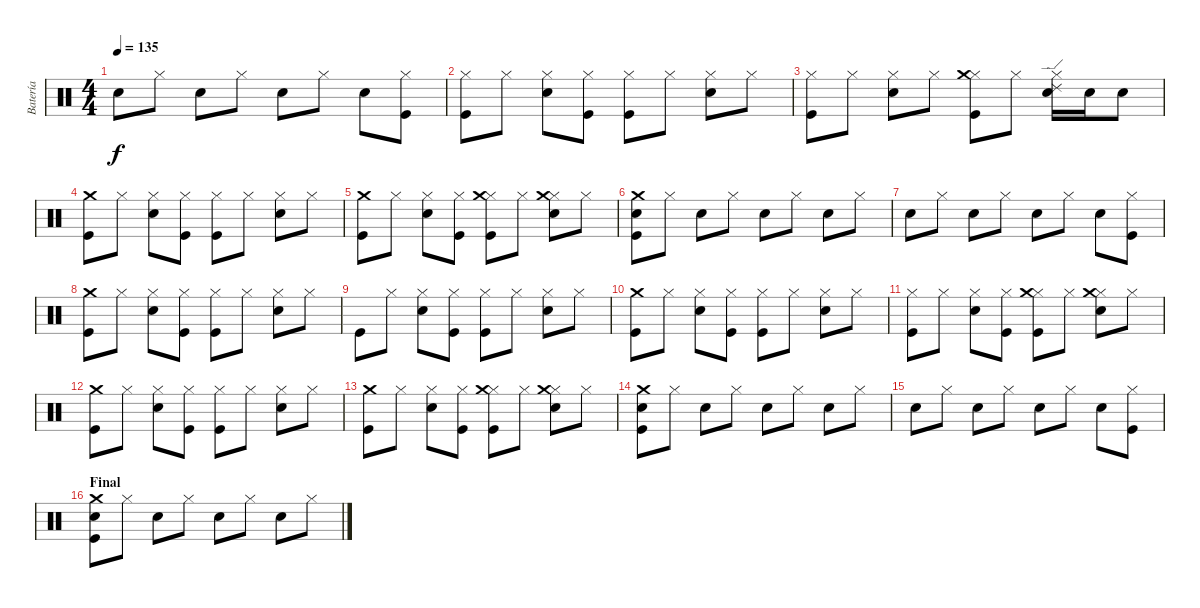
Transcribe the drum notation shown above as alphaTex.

\track ("Batería" "Batería") {instrument percussion}
\staff {score}
\articulation defaults
\ts (4 4)
\tempo 135
\clef neutral
\ks c "Snare (hit) 2".8{dy f} "Hi-Hat (closed)".8 "Snare (hit) 2".8 "Hi-Hat (closed)".8 "Snare (hit) 2".8 "Hi-Hat (closed)".8 "Snare (hit) 2".8
("Kick (hit)" "Hi-Hat (closed)").8 |
("Hi-Hat (closed)" "Kick (hit)").8 "Hi-Hat (closed)".8 ("Hi-Hat (closed)" "Snare (hit) 2").8 ("Hi-Hat (closed)" "Kick (hit)").8 ("Hi-Hat (closed)" "Kick (hit)").8 "Hi-Hat (closed)".8 ("Hi-Hat (closed)" "Snare (hit) 2").8 "Hi-Hat (closed)".8 |
("Hi-Hat (closed)" "Kick (hit)").8 "Hi-Hat (closed)".8 ("Hi-Hat (closed)" "Snare (hit) 2").8 "Hi-Hat (closed)".8 ("Hi-Hat (closed)" "Kick (hit)" "Crash medium (hit)").8 "Hi-Hat (closed)".8 ("Hi-Hat (closed)" "Snare (hit) 2" "Ride (edge) 2").16 "Snare (hit) 2".16 "Snare (hit) 2".8 |
("Kick (hit)" "Crash medium (hit)").8 "Hi-Hat (closed)".8 ("Hi-Hat (closed)" "Snare (hit) 2").8 ("Hi-Hat (closed)" "Kick (hit)").8 ("Hi-Hat (closed)" "Kick (hit)").8 "Hi-Hat (closed)".8 ("Hi-Hat (closed)" "Snare (hit) 2").8 "Hi-Hat (closed)".8 |
("Kick (hit)" "Crash medium (hit)").8 "Hi-Hat (closed)".8 ("Hi-Hat (closed)" "Snare (hit) 2").8 ("Hi-Hat (closed)" "Kick (hit)").8 ("Hi-Hat (closed)" "Kick (hit)" "Crash medium (hit)").8 "Hi-Hat (closed)".8 ("Hi-Hat (closed)" "Snare (hit) 2" "Crash medium (hit)").8 "Hi-Hat (closed)".8 |
("Kick (hit)" "Snare (hit) 2" "Crash medium (hit)").8 "Hi-Hat (closed)".8 "Snare (hit) 2".8 "Hi-Hat (closed)".8 "Snare (hit) 2".8 "Hi-Hat (closed)".8 "Snare (hit) 2".8 "Hi-Hat (closed)".8 |
"Snare (hit) 2".8 "Hi-Hat (closed)".8 "Snare (hit) 2".8 "Hi-Hat (closed)".8 "Snare (hit) 2".8 "Hi-Hat (closed)".8 "Snare (hit) 2".8 ("Kick (hit)" "Hi-Hat (closed)").8 |
("Kick (hit)" "Crash medium (hit)").8 "Hi-Hat (closed)".8 ("Hi-Hat (closed)" "Snare (hit) 2").8 ("Hi-Hat (closed)" "Kick (hit)").8 ("Hi-Hat (closed)" "Kick (hit)").8 "Hi-Hat (closed)".8 ("Hi-Hat (closed)" "Snare (hit) 2").8 "Hi-Hat (closed)".8 |
"Kick (hit)".8 "Hi-Hat (closed)".8 ("Hi-Hat (closed)" "Snare (hit) 2").8 ("Hi-Hat (closed)" "Kick (hit)").8 ("Hi-Hat (closed)" "Kick (hit)").8 "Hi-Hat (closed)".8 ("Hi-Hat (closed)" "Snare (hit) 2").8 "Hi-Hat (closed)".8 |
("Kick (hit)" "Crash medium (hit)").8 "Hi-Hat (closed)".8 ("Hi-Hat (closed)" "Snare (hit) 2").8 ("Hi-Hat (closed)" "Kick (hit)").8 ("Hi-Hat (closed)" "Kick (hit)").8 "Hi-Hat (closed)".8 ("Hi-Hat (closed)" "Snare (hit) 2").8 "Hi-Hat (closed)".8 |
("Kick (hit)" "Hi-Hat (closed)").8 "Hi-Hat (closed)".8 ("Hi-Hat (closed)" "Snare (hit) 2").8 ("Hi-Hat (closed)" "Kick (hit)").8 ("Hi-Hat (closed)" "Kick (hit)" "Crash medium (hit)").8 "Hi-Hat (closed)".8 ("Hi-Hat (closed)" "Snare (hit) 2" "Crash medium (hit)").8 "Hi-Hat (closed)".8 |
("Kick (hit)" "Crash medium (hit)").8 "Hi-Hat (closed)".8 ("Hi-Hat (closed)" "Snare (hit) 2").8 ("Hi-Hat (closed)" "Kick (hit)").8 ("Hi-Hat (closed)" "Kick (hit)").8 "Hi-Hat (closed)".8 ("Hi-Hat (closed)" "Snare (hit) 2").8 "Hi-Hat (closed)".8 |
("Kick (hit)" "Crash medium (hit)").8 "Hi-Hat (closed)".8 ("Hi-Hat (closed)" "Snare (hit) 2").8 ("Hi-Hat (closed)" "Kick (hit)").8 ("Hi-Hat (closed)" "Kick (hit)" "Crash medium (hit)").8 "Hi-Hat (closed)".8 ("Hi-Hat (closed)" "Snare (hit) 2" "Crash medium (hit)").8 "Hi-Hat (closed)".8 |
("Kick (hit)" "Snare (hit) 2" "Crash medium (hit)").8 "Hi-Hat (closed)".8 "Snare (hit) 2".8 "Hi-Hat (closed)".8 "Snare (hit) 2".8 "Hi-Hat (closed)".8 "Snare (hit) 2".8 "Hi-Hat (closed)".8 |
"Snare (hit) 2".8 "Hi-Hat (closed)".8 "Snare (hit) 2".8 "Hi-Hat (closed)".8 "Snare (hit) 2".8 "Hi-Hat (closed)".8 "Snare (hit) 2".8 ("Kick (hit)" "Hi-Hat (closed)").8 |
\section ("" "Final")
("Kick (hit)" "Snare (hit) 2" "Crash medium (hit)").8 "Hi-Hat (closed)".8 "Snare (hit) 2".8 "Hi-Hat (closed)".8 "Snare (hit) 2".8 "Hi-Hat (closed)".8 "Snare (hit) 2".8 "Hi-Hat (closed)".8
